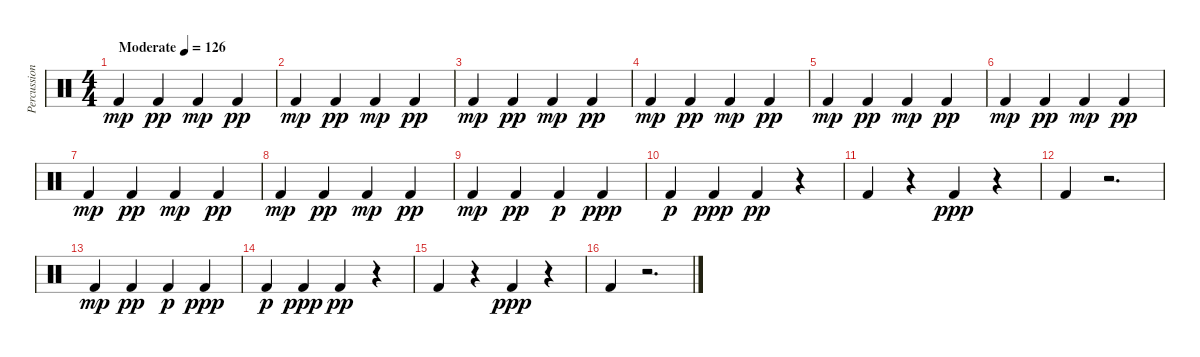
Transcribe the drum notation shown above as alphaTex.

\track ("Percussion" "Percussion") {instrument percussion}
\staff {score}
\articulation defaults
\ts (4 4)
\tempo (126 "Moderate")
\clef neutral
\ks c "Kick (hit) 2".4{dy mp} "Kick (hit) 2".4{dy pp} "Kick (hit) 2".4{dy mp} "Kick (hit) 2".4{dy pp}
|
"Kick (hit) 2".4{dy mp} "Kick (hit) 2".4{dy pp} "Kick (hit) 2".4{dy mp} "Kick (hit) 2".4{dy pp} |
"Kick (hit) 2".4{dy mp} "Kick (hit) 2".4{dy pp} "Kick (hit) 2".4{dy mp} "Kick (hit) 2".4{dy pp} |
"Kick (hit) 2".4{dy mp} "Kick (hit) 2".4{dy pp} "Kick (hit) 2".4{dy mp} "Kick (hit) 2".4{dy pp} |
"Kick (hit) 2".4{dy mp} "Kick (hit) 2".4{dy pp} "Kick (hit) 2".4{dy mp} "Kick (hit) 2".4{dy pp} |
"Kick (hit) 2".4{dy mp} "Kick (hit) 2".4{dy pp} "Kick (hit) 2".4{dy mp} "Kick (hit) 2".4{dy pp} |
"Kick (hit) 2".4{dy mp} "Kick (hit) 2".4{dy pp} "Kick (hit) 2".4{dy mp} "Kick (hit) 2".4{dy pp} |
"Kick (hit) 2".4{dy mp} "Kick (hit) 2".4{dy pp} "Kick (hit) 2".4{dy mp} "Kick (hit) 2".4{dy pp} |
"Kick (hit) 2".4{dy mp} "Kick (hit) 2".4{dy pp} "Kick (hit) 2".4{dy p} "Kick (hit) 2".4{dy ppp} |
"Kick (hit) 2".4{dy p} "Kick (hit) 2".4{dy ppp} "Kick (hit) 2".4{dy pp} r.4 |
"Kick (hit) 2".4 r.4 "Kick (hit) 2".4{dy ppp} r.4 |
"Kick (hit) 2".4 r.2{d} |
"Kick (hit) 2".4{dy mp} "Kick (hit) 2".4{dy pp} "Kick (hit) 2".4{dy p} "Kick (hit) 2".4{dy ppp} |
"Kick (hit) 2".4{dy p} "Kick (hit) 2".4{dy ppp} "Kick (hit) 2".4{dy pp} r.4 |
"Kick (hit) 2".4 r.4 "Kick (hit) 2".4{dy ppp} r.4 |
"Kick (hit) 2".4 r.2{d}
